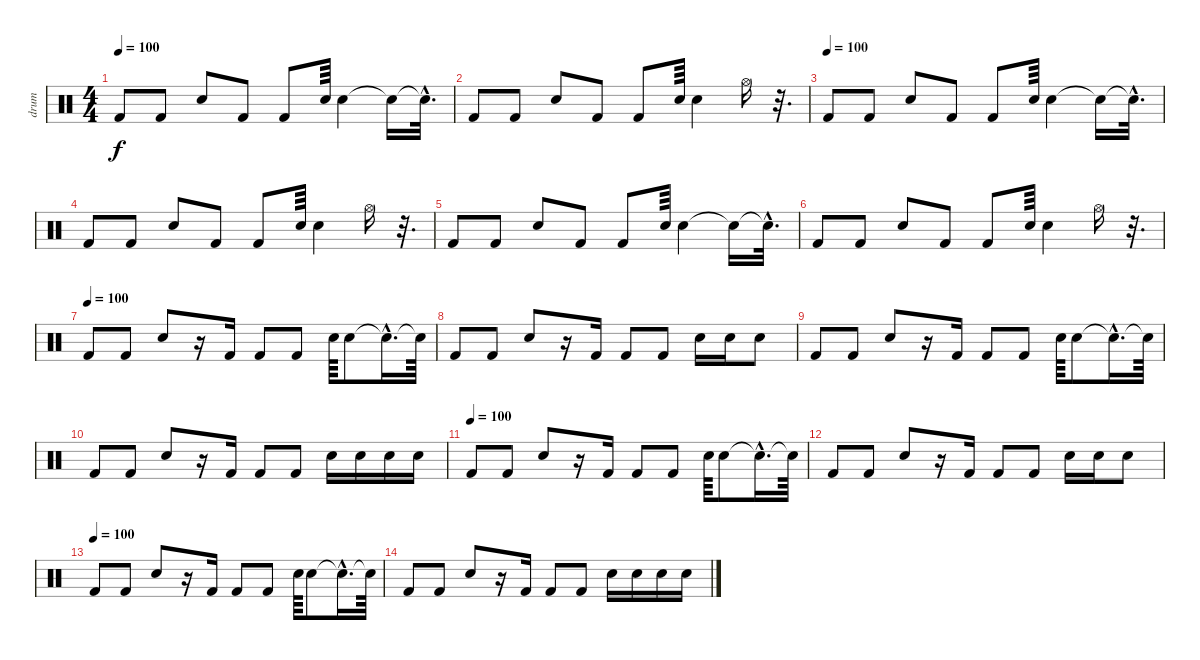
\track ("drum" "drum") {instrument percussion}
\staff {score}
\articulation defaults
\ts (4 4)
\tempo 100
\clef neutral
\ks c "Kick (hit) 2".8{dy f volume 16} "Kick (hit) 2".8 "Snare (hit) 2".8 "Kick (hit) 2".8 "Kick (hit) 2".8 "Snare (hit) 2".64 "Snare (hit) 2".4 "Snare (hit) 2"{t}.16 "Snare (hit) 2"{hac t}.32{d}
|
"Kick (hit) 2".8{volume 16} "Kick (hit) 2".8 "Snare (hit) 2".8 "Kick (hit) 2".8 "Kick (hit) 2".8 "Snare (hit) 2".64 "Snare (hit) 2".4 "Hi-Hat (open)".16 r.32{d} |
\tempo (100)
"Kick (hit) 2".8{volume 16} "Kick (hit) 2".8 "Snare (hit) 2".8 "Kick (hit) 2".8 "Kick (hit) 2".8 "Snare (hit) 2".64 "Snare (hit) 2".4 "Snare (hit) 2"{t}.16 "Snare (hit) 2"{hac t}.32{d} |
"Kick (hit) 2".8{volume 16} "Kick (hit) 2".8 "Snare (hit) 2".8 "Kick (hit) 2".8 "Kick (hit) 2".8 "Snare (hit) 2".64 "Snare (hit) 2".4 "Hi-Hat (open)".16 r.32{d} |
"Kick (hit) 2".8{volume 16} "Kick (hit) 2".8 "Snare (hit) 2".8 "Kick (hit) 2".8 "Kick (hit) 2".8 "Snare (hit) 2".64 "Snare (hit) 2".4 "Snare (hit) 2"{t}.16 "Snare (hit) 2"{hac t}.32{d} |
"Kick (hit) 2".8{volume 16} "Kick (hit) 2".8 "Snare (hit) 2".8 "Kick (hit) 2".8 "Kick (hit) 2".8 "Snare (hit) 2".64 "Snare (hit) 2".4 "Hi-Hat (open)".16 r.32{d} |
\tempo (100)
"Kick (hit) 2".8{volume 16} "Kick (hit) 2".8 "Snare (hit) 2".8 r.16 "Kick (hit) 2".16 "Kick (hit) 2".8 "Kick (hit) 2".8 "Snare (hit) 2".64 "Snare (hit) 2".8 "Snare (hit) 2"{hac t}.16{d} "Snare (hit) 2"{t}.64 |
"Kick (hit) 2".8{volume 16} "Kick (hit) 2".8 "Snare (hit) 2".8 r.16 "Kick (hit) 2".16 "Kick (hit) 2".8 "Kick (hit) 2".8 "Snare (hit) 2".16 "Snare (hit) 2".16 "Snare (hit) 2".8 |
"Kick (hit) 2".8{volume 16} "Kick (hit) 2".8 "Snare (hit) 2".8 r.16 "Kick (hit) 2".16 "Kick (hit) 2".8 "Kick (hit) 2".8 "Snare (hit) 2".64 "Snare (hit) 2".8 "Snare (hit) 2"{hac t}.16{d} "Snare (hit) 2"{t}.64 |
"Kick (hit) 2".8{volume 16} "Kick (hit) 2".8 "Snare (hit) 2".8 r.16 "Kick (hit) 2".16 "Kick (hit) 2".8 "Kick (hit) 2".8 "Snare (hit) 2".16 "Snare (hit) 2".16 "Snare (hit) 2".16 "Snare (hit) 2".16 |
\tempo (100)
"Kick (hit) 2".8{volume 16} "Kick (hit) 2".8 "Snare (hit) 2".8 r.16 "Kick (hit) 2".16 "Kick (hit) 2".8 "Kick (hit) 2".8 "Snare (hit) 2".64 "Snare (hit) 2".8 "Snare (hit) 2"{hac t}.16{d} "Snare (hit) 2"{t}.64 |
"Kick (hit) 2".8{volume 16} "Kick (hit) 2".8 "Snare (hit) 2".8 r.16 "Kick (hit) 2".16 "Kick (hit) 2".8 "Kick (hit) 2".8 "Snare (hit) 2".16 "Snare (hit) 2".16 "Snare (hit) 2".8 |
\tempo (100)
"Kick (hit) 2".8{volume 16} "Kick (hit) 2".8 "Snare (hit) 2".8 r.16 "Kick (hit) 2".16 "Kick (hit) 2".8 "Kick (hit) 2".8 "Snare (hit) 2".64 "Snare (hit) 2".8 "Snare (hit) 2"{hac t}.16{d} "Snare (hit) 2"{t}.64 |
"Kick (hit) 2".8{volume 16} "Kick (hit) 2".8 "Snare (hit) 2".8 r.16 "Kick (hit) 2".16 "Kick (hit) 2".8 "Kick (hit) 2".8 "Snare (hit) 2".16 "Snare (hit) 2".16 "Snare (hit) 2".16 "Snare (hit) 2".16
